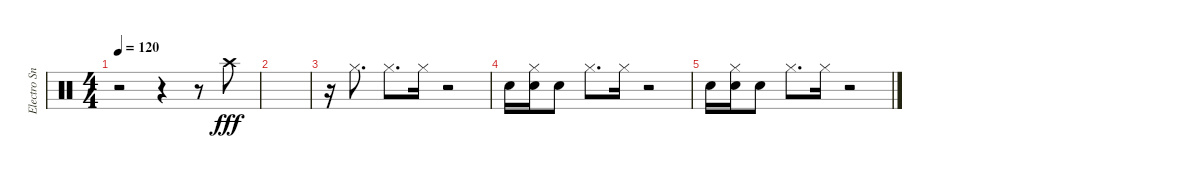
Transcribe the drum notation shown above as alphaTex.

\track ("Electro Snare" "Electro Sn") {instrument percussion}
\staff {score}
\articulation defaults
\ts (4 4)
\tempo 120
\clef neutral
\ks c
r.2{dy fff} r.4 r.8 "Crash high (hit)".8 |
|
r.16 "Hi-Hat (closed)".8{d} "Hi-Hat (closed)".8{d} "Hi-Hat (closed)".16 r.2 |
"Electric Snare (hit)".16 ("Hi-Hat (closed)" "Electric Snare (hit)").16 "Electric Snare (hit)".8 "Hi-Hat (closed)".8{d} "Hi-Hat (closed)".16 r.2 |
"Electric Snare (hit)".16 ("Hi-Hat (closed)" "Electric Snare (hit)").16 "Electric Snare (hit)".8 "Hi-Hat (closed)".8{d} "Hi-Hat (closed)".16 r.2
